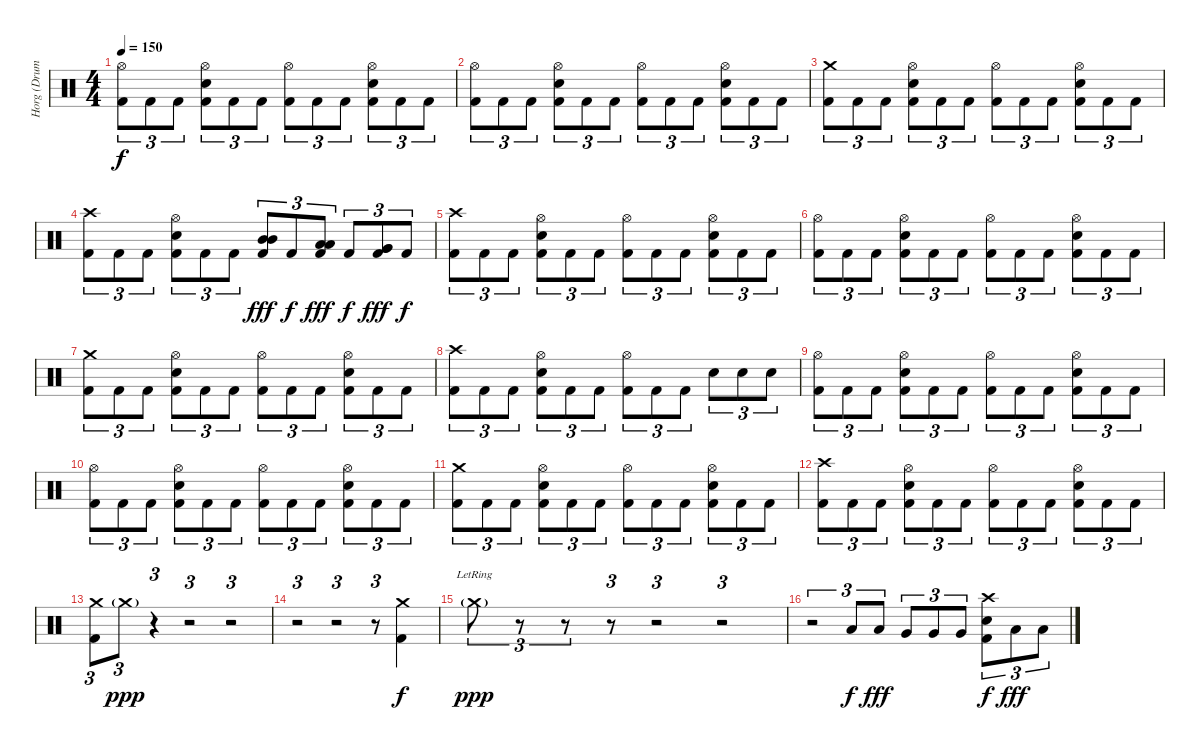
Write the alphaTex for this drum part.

\track ("Horg (Drums)" "Horg (Drum") {instrument percussion}
\staff {score}
\articulation defaults
\ts (4 4)
\tempo 150
\clef neutral
\ks c
("Hi-Hat (open)" "Kick (hit) 2").8{tu (3 2) dy f} "Kick (hit) 2".8{tu (3 2)} "Kick (hit) 2".8{tu (3 2)} ("Hi-Hat (open)" "Electric Snare (hit)" "Kick (hit) 2").8{tu (3 2)} "Kick (hit) 2".8{tu (3 2)} "Kick (hit) 2".8{tu (3 2)} ("Hi-Hat (open)" "Kick (hit) 2").8{tu (3 2)} "Kick (hit) 2".8{tu (3 2)} "Kick (hit) 2".8{tu (3 2)} ("Hi-Hat (open)" "Electric Snare (hit)" "Kick (hit) 2").8{tu (3 2)} "Kick (hit) 2".8{tu (3 2)} "Kick (hit) 2".8{tu (3 2)} |
("Hi-Hat (open)" "Kick (hit) 2").8{tu (3 2)} "Kick (hit) 2".8{tu (3 2)} "Kick (hit) 2".8{tu (3 2)} ("Hi-Hat (open)" "Electric Snare (hit)" "Kick (hit) 2").8{tu (3 2)} "Kick (hit) 2".8{tu (3 2)} "Kick (hit) 2".8{tu (3 2)} ("Hi-Hat (open)" "Kick (hit) 2").8{tu (3 2)} "Kick (hit) 2".8{tu (3 2)} "Kick (hit) 2".8{tu (3 2)} ("Hi-Hat (open)" "Electric Snare (hit)" "Kick (hit) 2").8{tu (3 2)} "Kick (hit) 2".8{tu (3 2)} "Kick (hit) 2".8{tu (3 2)} |
("Crash medium (hit)" "Kick (hit) 2").8{tu (3 2)} "Kick (hit) 2".8{tu (3 2)} "Kick (hit) 2".8{tu (3 2)} ("Hi-Hat (open)" "Electric Snare (hit)" "Kick (hit) 2").8{tu (3 2)} "Kick (hit) 2".8{tu (3 2)} "Kick (hit) 2".8{tu (3 2)} ("Hi-Hat (open)" "Kick (hit) 2").8{tu (3 2)} "Kick (hit) 2".8{tu (3 2)} "Kick (hit) 2".8{tu (3 2)} ("Hi-Hat (open)" "Electric Snare (hit)" "Kick (hit) 2").8{tu (3 2)} "Kick (hit) 2".8{tu (3 2)} "Kick (hit) 2".8{tu (3 2)} |
("Crash high (hit)" "Kick (hit) 2").8{tu (3 2)} "Kick (hit) 2".8{tu (3 2)} "Kick (hit) 2".8{tu (3 2)} ("Hi-Hat (open)" "Electric Snare (hit)" "Kick (hit) 2").8{tu (3 2)} "Kick (hit) 2".8{tu (3 2)} "Kick (hit) 2".8{tu (3 2)} ("Mid Tom (hit)" "Mid Tom (hit)" "Kick (hit) 2").8{tu (3 2) dy fff} "Kick (hit) 2".8{tu (3 2) dy f} ("Low Tom (hit)" "Low Tom (hit)" "Kick (hit) 2").8{tu (3 2) dy fff} "Kick (hit) 2".8{tu (3 2) dy f} ("Very Low Tom (hit)" "Very Low Tom (hit)" "Kick (hit) 2").8{tu (3 2) dy fff} "Kick (hit) 2".8{tu (3 2) dy f} |
("Crash high (hit)" "Kick (hit) 2").8{tu (3 2)} "Kick (hit) 2".8{tu (3 2)} "Kick (hit) 2".8{tu (3 2)} ("Hi-Hat (open)" "Electric Snare (hit)" "Kick (hit) 2").8{tu (3 2)} "Kick (hit) 2".8{tu (3 2)} "Kick (hit) 2".8{tu (3 2)} ("Hi-Hat (open)" "Kick (hit) 2").8{tu (3 2)} "Kick (hit) 2".8{tu (3 2)} "Kick (hit) 2".8{tu (3 2)} ("Hi-Hat (open)" "Electric Snare (hit)" "Kick (hit) 2").8{tu (3 2)} "Kick (hit) 2".8{tu (3 2)} "Kick (hit) 2".8{tu (3 2)} |
("Hi-Hat (open)" "Kick (hit) 2").8{tu (3 2)} "Kick (hit) 2".8{tu (3 2)} "Kick (hit) 2".8{tu (3 2)} ("Hi-Hat (open)" "Electric Snare (hit)" "Kick (hit) 2").8{tu (3 2)} "Kick (hit) 2".8{tu (3 2)} "Kick (hit) 2".8{tu (3 2)} ("Hi-Hat (open)" "Kick (hit) 2").8{tu (3 2)} "Kick (hit) 2".8{tu (3 2)} "Kick (hit) 2".8{tu (3 2)} ("Hi-Hat (open)" "Electric Snare (hit)" "Kick (hit) 2").8{tu (3 2)} "Kick (hit) 2".8{tu (3 2)} "Kick (hit) 2".8{tu (3 2)} |
("Crash medium (hit)" "Kick (hit) 2").8{tu (3 2)} "Kick (hit) 2".8{tu (3 2)} "Kick (hit) 2".8{tu (3 2)} ("Hi-Hat (open)" "Electric Snare (hit)" "Kick (hit) 2").8{tu (3 2)} "Kick (hit) 2".8{tu (3 2)} "Kick (hit) 2".8{tu (3 2)} ("Hi-Hat (open)" "Kick (hit) 2").8{tu (3 2)} "Kick (hit) 2".8{tu (3 2)} "Kick (hit) 2".8{tu (3 2)} ("Hi-Hat (open)" "Electric Snare (hit)" "Kick (hit) 2").8{tu (3 2)} "Kick (hit) 2".8{tu (3 2)} "Kick (hit) 2".8{tu (3 2)} |
("Crash high (hit)" "Kick (hit) 2").8{tu (3 2)} "Kick (hit) 2".8{tu (3 2)} "Kick (hit) 2".8{tu (3 2)} ("Hi-Hat (open)" "Electric Snare (hit)" "Kick (hit) 2").8{tu (3 2)} "Kick (hit) 2".8{tu (3 2)} "Kick (hit) 2".8{tu (3 2)} ("Hi-Hat (open)" "Kick (hit) 2").8{tu (3 2)} "Kick (hit) 2".8{tu (3 2)} "Kick (hit) 2".8{tu (3 2)} "Electric Snare (hit)".8{tu (3 2)} "Electric Snare (hit)".8{tu (3 2)} "Electric Snare (hit)".8{tu (3 2)} |
("Hi-Hat (open)" "Kick (hit) 2").8{tu (3 2)} "Kick (hit) 2".8{tu (3 2)} "Kick (hit) 2".8{tu (3 2)} ("Hi-Hat (open)" "Electric Snare (hit)" "Kick (hit) 2").8{tu (3 2)} "Kick (hit) 2".8{tu (3 2)} "Kick (hit) 2".8{tu (3 2)} ("Hi-Hat (open)" "Kick (hit) 2").8{tu (3 2)} "Kick (hit) 2".8{tu (3 2)} "Kick (hit) 2".8{tu (3 2)} ("Hi-Hat (open)" "Electric Snare (hit)" "Kick (hit) 2").8{tu (3 2)} "Kick (hit) 2".8{tu (3 2)} "Kick (hit) 2".8{tu (3 2)} |
("Hi-Hat (open)" "Kick (hit) 2").8{tu (3 2)} "Kick (hit) 2".8{tu (3 2)} "Kick (hit) 2".8{tu (3 2)} ("Hi-Hat (open)" "Electric Snare (hit)" "Kick (hit) 2").8{tu (3 2)} "Kick (hit) 2".8{tu (3 2)} "Kick (hit) 2".8{tu (3 2)} ("Hi-Hat (open)" "Kick (hit) 2").8{tu (3 2)} "Kick (hit) 2".8{tu (3 2)} "Kick (hit) 2".8{tu (3 2)} ("Hi-Hat (open)" "Electric Snare (hit)" "Kick (hit) 2").8{tu (3 2)} "Kick (hit) 2".8{tu (3 2)} "Kick (hit) 2".8{tu (3 2)} |
("Crash medium (hit)" "Kick (hit) 2").8{tu (3 2)} "Kick (hit) 2".8{tu (3 2)} "Kick (hit) 2".8{tu (3 2)} ("Hi-Hat (open)" "Electric Snare (hit)" "Kick (hit) 2").8{tu (3 2)} "Kick (hit) 2".8{tu (3 2)} "Kick (hit) 2".8{tu (3 2)} ("Hi-Hat (open)" "Kick (hit) 2").8{tu (3 2)} "Kick (hit) 2".8{tu (3 2)} "Kick (hit) 2".8{tu (3 2)} ("Hi-Hat (open)" "Electric Snare (hit)" "Kick (hit) 2").8{tu (3 2)} "Kick (hit) 2".8{tu (3 2)} "Kick (hit) 2".8{tu (3 2)} |
("Crash high (hit)" "Kick (hit) 2").8{tu (3 2)} "Kick (hit) 2".8{tu (3 2)} "Kick (hit) 2".8{tu (3 2)} ("Hi-Hat (open)" "Electric Snare (hit)" "Kick (hit) 2").8{tu (3 2)} "Kick (hit) 2".8{tu (3 2)} "Kick (hit) 2".8{tu (3 2)} ("Hi-Hat (open)" "Kick (hit) 2").8{tu (3 2)} "Kick (hit) 2".8{tu (3 2)} "Kick (hit) 2".8{tu (3 2)} ("Hi-Hat (open)" "Electric Snare (hit)" "Kick (hit) 2").8{tu (3 2)} "Kick (hit) 2".8{tu (3 2)} "Kick (hit) 2".8{tu (3 2)} |
("Crash medium (hit)" "Kick (hit) 2").8{tu (3 2)} "Crash medium (hit)"{g}.8{tu (3 2) dy ppp volume 0} r.4{tu (3 2)} r.2{tu (3 2)} r.2{tu (3 2)} |
r.2{tu (3 2) volume 15} r.2{tu (3 2)} r.8{tu (3 2)} ("Crash medium (hit)" "Kick (hit) 2").4{dy f} |
"Crash medium (hit)"{g lr}.8{tu (3 2) dy ppp} r.8{tu (3 2)} r.8{tu (3 2)} r.8{tu (3 2)} r.2{tu (3 2)} r.2{tu (3 2)} |
r.2{tu (3 2)} "Low Tom (hit)".8{tu (3 2) dy f} "Low Tom (hit)".8{tu (3 2) dy fff} "Very Low Tom (hit)".8{tu (3 2)} "Very Low Tom (hit)".8{tu (3 2)} "Very Low Tom (hit)".8{tu (3 2)} ("Crash high (hit)" "Electric Snare (hit)" "Kick (hit) 2").8{tu (3 2) dy f} "Low Floor Tom (hit)".8{tu (3 2) dy fff} "Low Floor Tom (hit)".8{tu (3 2)}
